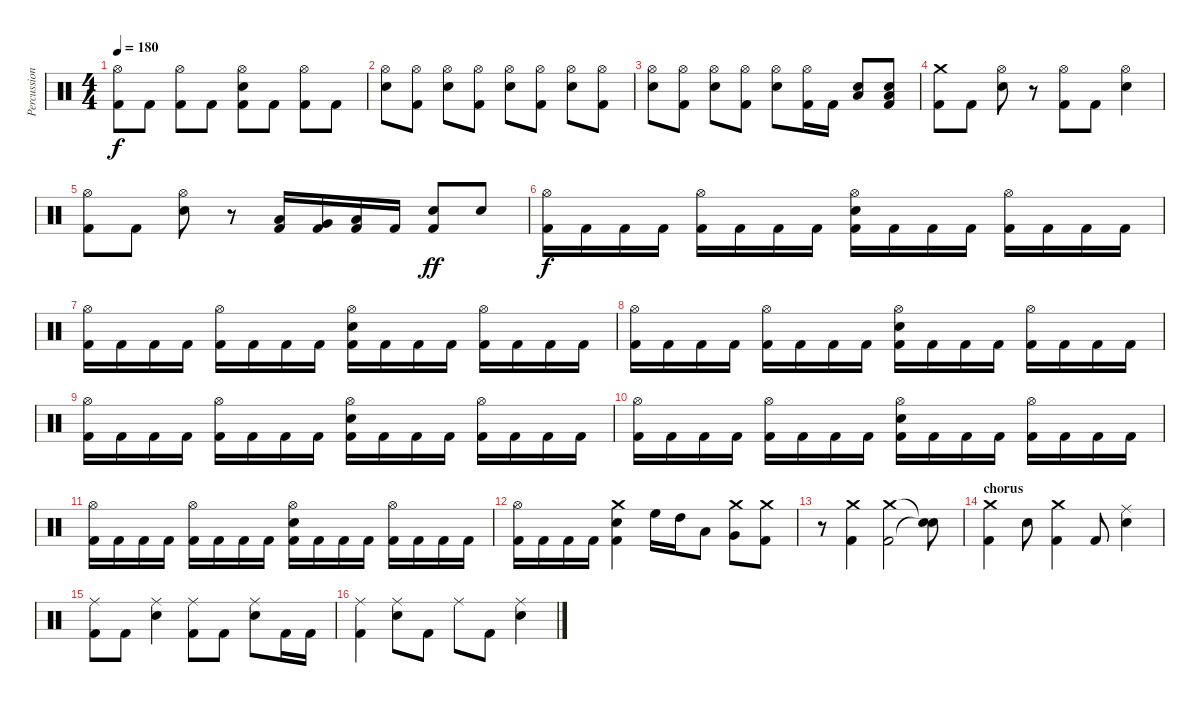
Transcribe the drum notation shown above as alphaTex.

\track ("Percussion" "Percussion") {instrument percussion}
\staff {score}
\articulation defaults
\ts (4 4)
\tempo 180
\clef neutral
\ks c
("Hi-Hat (open)" "Kick (hit) 2").8{dy f} "Kick (hit) 2".8 ("Hi-Hat (open)" "Kick (hit) 2").8 "Kick (hit) 2".8 ("Hi-Hat (open)" "Electric Snare (hit)" "Kick (hit) 2").8 "Kick (hit) 2".8 ("Hi-Hat (open)" "Kick (hit) 2").8 "Kick (hit) 2".8 |
("Hi-Hat (open)" "Electric Snare (hit)").8 ("Hi-Hat (open)" "Kick (hit) 2").8 ("Hi-Hat (open)" "Electric Snare (hit)").8 ("Hi-Hat (open)" "Kick (hit) 2").8 ("Hi-Hat (open)" "Electric Snare (hit)").8 ("Hi-Hat (open)" "Kick (hit) 2").8 ("Hi-Hat (open)" "Electric Snare (hit)").8 ("Hi-Hat (open)" "Kick (hit) 2").8 |
("Hi-Hat (open)" "Electric Snare (hit)").8 ("Hi-Hat (open)" "Kick (hit) 2").8 ("Hi-Hat (open)" "Electric Snare (hit)").8 ("Hi-Hat (open)" "Kick (hit) 2").8 ("Hi-Hat (open)" "Electric Snare (hit)").8 ("Hi-Hat (open)" "Kick (hit) 2").16 "Kick (hit) 2".16 ("Low Tom (hit)" "Electric Snare (hit)").8 ("Low Tom (hit)" "Electric Snare (hit)" "Kick (hit) 2").8 |
("Crash medium (hit)" "Kick (hit) 2").8 "Kick (hit) 2".8 ("Hi-Hat (open)" "Electric Snare (hit)").8 r.8 ("Hi-Hat (open)" "Kick (hit) 2").8 "Kick (hit) 2".8 ("Hi-Hat (open)" "Electric Snare (hit)").4 |
("Hi-Hat (open)" "Kick (hit) 2").8 "Kick (hit) 2".8 ("Hi-Hat (open)" "Electric Snare (hit)").8 r.8 ("Low Tom (hit)" "Kick (hit) 2").16 ("Very Low Tom (hit)" "Kick (hit) 2").16 ("Low Floor Tom (hit)" "Kick (hit) 2").16 "Kick (hit) 2".16 ("Electric Snare (hit)" "Kick (hit) 2").8{dy ff} "Electric Snare (hit)".8 |
("Hi-Hat (open)" "Kick (hit) 2").16{dy f} "Kick (hit) 2".16 "Kick (hit) 2".16 "Kick (hit) 2".16 ("Hi-Hat (open)" "Kick (hit) 2").16 "Kick (hit) 2".16 "Kick (hit) 2".16 "Kick (hit) 2".16 ("Hi-Hat (open)" "Electric Snare (hit)" "Kick (hit) 2").16 "Kick (hit) 2".16 "Kick (hit) 2".16 "Kick (hit) 2".16 ("Hi-Hat (open)" "Kick (hit) 2").16 "Kick (hit) 2".16 "Kick (hit) 2".16 "Kick (hit) 2".16 |
("Hi-Hat (open)" "Kick (hit) 2").16 "Kick (hit) 2".16 "Kick (hit) 2".16 "Kick (hit) 2".16 ("Hi-Hat (open)" "Kick (hit) 2").16 "Kick (hit) 2".16 "Kick (hit) 2".16 "Kick (hit) 2".16 ("Hi-Hat (open)" "Electric Snare (hit)" "Kick (hit) 2").16 "Kick (hit) 2".16 "Kick (hit) 2".16 "Kick (hit) 2".16 ("Hi-Hat (open)" "Kick (hit) 2").16 "Kick (hit) 2".16 "Kick (hit) 2".16 "Kick (hit) 2".16 |
("Hi-Hat (open)" "Kick (hit) 2").16 "Kick (hit) 2".16 "Kick (hit) 2".16 "Kick (hit) 2".16 ("Hi-Hat (open)" "Kick (hit) 2").16 "Kick (hit) 2".16 "Kick (hit) 2".16 "Kick (hit) 2".16 ("Hi-Hat (open)" "Electric Snare (hit)" "Kick (hit) 2").16 "Kick (hit) 2".16 "Kick (hit) 2".16 "Kick (hit) 2".16 ("Hi-Hat (open)" "Kick (hit) 2").16 "Kick (hit) 2".16 "Kick (hit) 2".16 "Kick (hit) 2".16 |
("Hi-Hat (open)" "Kick (hit) 2").16 "Kick (hit) 2".16 "Kick (hit) 2".16 "Kick (hit) 2".16 ("Hi-Hat (open)" "Kick (hit) 2").16 "Kick (hit) 2".16 "Kick (hit) 2".16 "Kick (hit) 2".16 ("Hi-Hat (open)" "Electric Snare (hit)" "Kick (hit) 2").16 "Kick (hit) 2".16 "Kick (hit) 2".16 "Kick (hit) 2".16 ("Hi-Hat (open)" "Kick (hit) 2").16 "Kick (hit) 2".16 "Kick (hit) 2".16 "Kick (hit) 2".16 |
("Hi-Hat (open)" "Kick (hit) 2").16 "Kick (hit) 2".16 "Kick (hit) 2".16 "Kick (hit) 2".16 ("Hi-Hat (open)" "Kick (hit) 2").16 "Kick (hit) 2".16 "Kick (hit) 2".16 "Kick (hit) 2".16 ("Hi-Hat (open)" "Electric Snare (hit)" "Kick (hit) 2").16 "Kick (hit) 2".16 "Kick (hit) 2".16 "Kick (hit) 2".16 ("Hi-Hat (open)" "Kick (hit) 2").16 "Kick (hit) 2".16 "Kick (hit) 2".16 "Kick (hit) 2".16 |
("Hi-Hat (open)" "Kick (hit) 2").16 "Kick (hit) 2".16 "Kick (hit) 2".16 "Kick (hit) 2".16 ("Hi-Hat (open)" "Kick (hit) 2").16 "Kick (hit) 2".16 "Kick (hit) 2".16 "Kick (hit) 2".16 ("Hi-Hat (open)" "Electric Snare (hit)" "Kick (hit) 2").16 "Kick (hit) 2".16 "Kick (hit) 2".16 "Kick (hit) 2".16 ("Hi-Hat (open)" "Kick (hit) 2").16 "Kick (hit) 2".16 "Kick (hit) 2".16 "Kick (hit) 2".16 |
("Hi-Hat (open)" "Kick (hit) 2").16 "Kick (hit) 2".16 "Kick (hit) 2".16 "Kick (hit) 2".16 ("Crash medium (hit)" "Electric Snare (hit)" "Kick (hit) 2").4 "High Floor Tom (hit)".16 "High Tom (hit)".16 "Low Tom (hit)".8 ("Crash medium (hit)" "Very Low Tom (hit)").8 ("Crash medium (hit)" "Kick (hit) 2").8 |
r.8 ("Crash medium (hit)" "Kick (hit) 2").4 ("Crash medium (hit)" "Kick (hit) 2").2 ("Snare (hit)"{t} "Snare (hit)"{t}).8 |
\section ("" "chorus")
("Crash medium (hit)" "Kick (hit) 2").4 "Electric Snare (hit)".8 ("Crash medium (hit)" "Kick (hit) 2").4 "Kick (hit) 2".8 ("Ride (middle)" "Electric Snare (hit)").4 |
("Ride (middle)" "Kick (hit) 2").8 "Kick (hit) 2".8 ("Ride (middle)" "Electric Snare (hit)").4 ("Ride (middle)" "Kick (hit) 2").8 "Kick (hit) 2".8 ("Ride (middle)" "Electric Snare (hit)").8 "Kick (hit) 2".16 "Kick (hit) 2".16 |
("Ride (middle)" "Kick (hit) 2").4 ("Ride (middle)" "Electric Snare (hit)").8 "Kick (hit) 2".8 "Ride (middle)".8 "Kick (hit) 2".8 ("Ride (middle)" "Electric Snare (hit)").4
